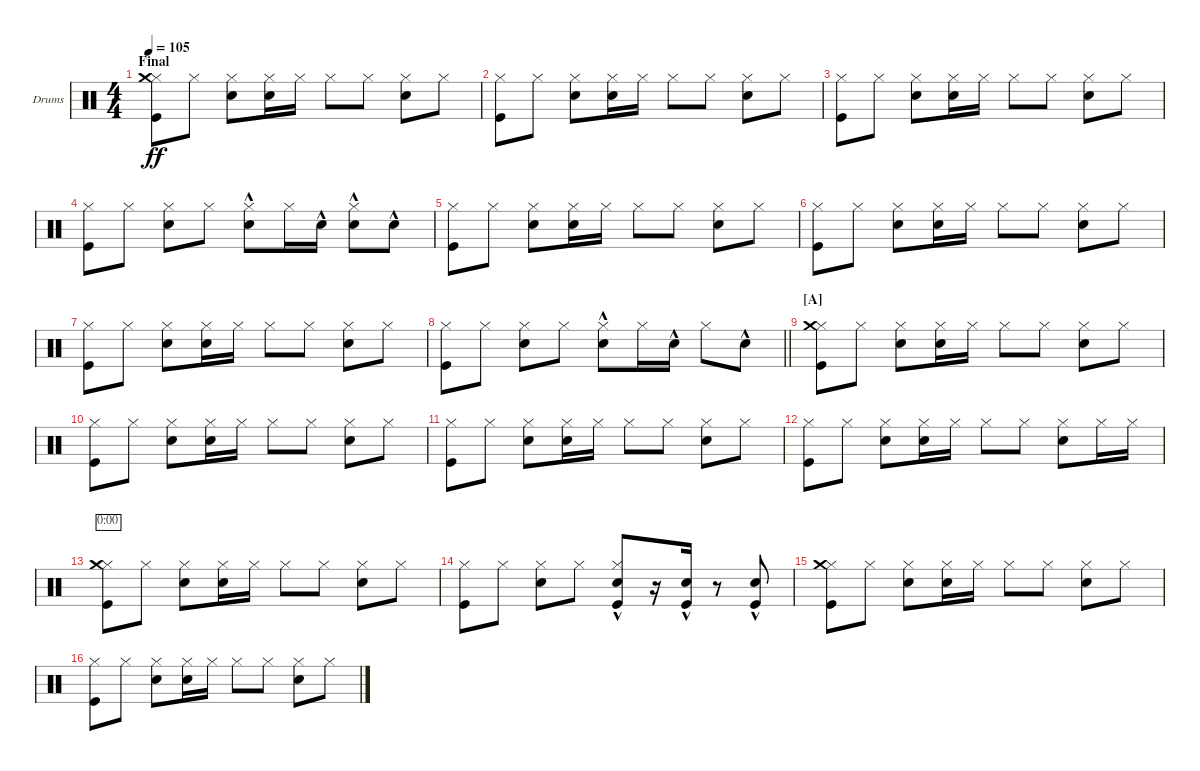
\bracketExtendMode groupsimilarinstruments
\firstSystemTrackNameOrientation horizontal
\otherSystemsTrackNameOrientation horizontal
\track ("Drumkit" "Drums") {instrument percussion}
\staff {score}
\articulation defaults
\ts (4 4)
\section ("" "Final")
\tempo 105
\clef neutral
\ks c
("Kick (hit)" "Hi-Hat (closed)" "Crash medium (hit)").8{dy ff} "Hi-Hat (closed)".8 ("Snare (hit) 2" "Hi-Hat (closed)").8 ("Hi-Hat (closed)" "Snare (hit) 2").16 "Hi-Hat (closed)".16 "Hi-Hat (closed)".8 "Hi-Hat (closed)".8 ("Snare (hit) 2" "Hi-Hat (closed)").8 "Hi-Hat (closed)".8 |
("Kick (hit)" "Hi-Hat (closed)").8 "Hi-Hat (closed)".8 ("Snare (hit) 2" "Hi-Hat (closed)").8 ("Hi-Hat (closed)" "Snare (hit) 2").16 "Hi-Hat (closed)".16 "Hi-Hat (closed)".8 "Hi-Hat (closed)".8 ("Snare (hit) 2" "Hi-Hat (closed)").8 "Hi-Hat (closed)".8 |
("Kick (hit)" "Hi-Hat (closed)").8 "Hi-Hat (closed)".8 ("Snare (hit) 2" "Hi-Hat (closed)").8 ("Hi-Hat (closed)" "Snare (hit) 2").16 "Hi-Hat (closed)".16 "Hi-Hat (closed)".8 "Hi-Hat (closed)".8 ("Snare (hit) 2" "Hi-Hat (closed)").8 "Hi-Hat (closed)".8 |
("Hi-Hat (closed)" "Kick (hit)").8 "Hi-Hat (closed)".8 ("Snare (hit) 2" "Hi-Hat (closed)").8 "Hi-Hat (closed)".8 ("Hi-Hat (closed)" "Snare (hit) 2"{hac}).8 "Hi-Hat (closed)".16 "Snare (hit) 2"{hac}.16 ("Hi-Hat (closed)" "Snare (hit) 2"{hac}).8 "Snare (hit) 2"{hac}.8 |
("Kick (hit)" "Hi-Hat (closed)").8 "Hi-Hat (closed)".8 ("Snare (hit) 2" "Hi-Hat (closed)").8 ("Hi-Hat (closed)" "Snare (hit) 2").16 "Hi-Hat (closed)".16 "Hi-Hat (closed)".8 "Hi-Hat (closed)".8 ("Snare (hit) 2" "Hi-Hat (closed)").8 "Hi-Hat (closed)".8 |
("Kick (hit)" "Hi-Hat (closed)").8 "Hi-Hat (closed)".8 ("Snare (hit) 2" "Hi-Hat (closed)").8 ("Hi-Hat (closed)" "Snare (hit) 2").16 "Hi-Hat (closed)".16 "Hi-Hat (closed)".8 "Hi-Hat (closed)".8 ("Snare (hit) 2" "Hi-Hat (closed)").8 "Hi-Hat (closed)".8 |
("Kick (hit)" "Hi-Hat (closed)").8 "Hi-Hat (closed)".8 ("Snare (hit) 2" "Hi-Hat (closed)").8 ("Hi-Hat (closed)" "Snare (hit) 2").16 "Hi-Hat (closed)".16 "Hi-Hat (closed)".8 "Hi-Hat (closed)".8 ("Snare (hit) 2" "Hi-Hat (closed)").8 "Hi-Hat (closed)".8 |
\barLineRight lightlight
("Hi-Hat (closed)" "Kick (hit)").8 "Hi-Hat (closed)".8 ("Snare (hit) 2" "Hi-Hat (closed)").8 "Hi-Hat (closed)".8 ("Hi-Hat (closed)" "Snare (hit) 2"{hac}).8 "Hi-Hat (closed)".16 "Snare (hit) 2"{hac}.16 "Hi-Hat (closed)".8 "Snare (hit) 2"{hac}.8 |
\section ("A" "")
("Kick (hit)" "Hi-Hat (closed)" "Crash medium (hit)").8 "Hi-Hat (closed)".8 ("Snare (hit) 2" "Hi-Hat (closed)").8 ("Hi-Hat (closed)" "Snare (hit) 2").16 "Hi-Hat (closed)".16 "Hi-Hat (closed)".8 "Hi-Hat (closed)".8 ("Snare (hit) 2" "Hi-Hat (closed)").8 "Hi-Hat (closed)".8 |
("Kick (hit)" "Hi-Hat (closed)").8 "Hi-Hat (closed)".8 ("Snare (hit) 2" "Hi-Hat (closed)").8 ("Hi-Hat (closed)" "Snare (hit) 2").16 "Hi-Hat (closed)".16 "Hi-Hat (closed)".8 "Hi-Hat (closed)".8 ("Snare (hit) 2" "Hi-Hat (closed)").8 "Hi-Hat (closed)".8 |
("Kick (hit)" "Hi-Hat (closed)").8 "Hi-Hat (closed)".8 ("Snare (hit) 2" "Hi-Hat (closed)").8 ("Hi-Hat (closed)" "Snare (hit) 2").16 "Hi-Hat (closed)".16 "Hi-Hat (closed)".8 "Hi-Hat (closed)".8 ("Snare (hit) 2" "Hi-Hat (closed)").8 "Hi-Hat (closed)".8 |
("Kick (hit)" "Hi-Hat (closed)").8 "Hi-Hat (closed)".8 ("Snare (hit) 2" "Hi-Hat (closed)").8 ("Hi-Hat (closed)" "Snare (hit) 2").16 "Hi-Hat (closed)".16 "Hi-Hat (closed)".8 "Hi-Hat (closed)".8 ("Snare (hit) 2" "Hi-Hat (closed)").8 "Hi-Hat (closed)".16 "Hi-Hat (closed)".16 |
\section ("" "")
("Kick (hit)" "Hi-Hat (closed)" "Crash medium (hit)").8{timer} "Hi-Hat (closed)".8 ("Snare (hit) 2" "Hi-Hat (closed)").8 ("Hi-Hat (closed)" "Snare (hit) 2").16 "Hi-Hat (closed)".16 "Hi-Hat (closed)".8 "Hi-Hat (closed)".8 ("Snare (hit) 2" "Hi-Hat (closed)").8 "Hi-Hat (closed)".8 |
("Hi-Hat (closed)" "Kick (hit)").8 "Hi-Hat (closed)".8 ("Snare (hit) 2" "Hi-Hat (closed)").8 "Hi-Hat (closed)".8 ("Hi-Hat (closed)" "Snare (hit) 2"{hac} "Kick (hit)").8 r.16 ("Snare (hit) 2"{hac} "Kick (hit)").16 r.8 ("Snare (hit) 2"{hac} "Kick (hit)").8 |
("Kick (hit)" "Hi-Hat (closed)" "Crash medium (hit)").8 "Hi-Hat (closed)".8 ("Snare (hit) 2" "Hi-Hat (closed)").8 ("Hi-Hat (closed)" "Snare (hit) 2").16 "Hi-Hat (closed)".16 "Hi-Hat (closed)".8 "Hi-Hat (closed)".8 ("Snare (hit) 2" "Hi-Hat (closed)").8 "Hi-Hat (closed)".8 |
("Kick (hit)" "Hi-Hat (closed)").8 "Hi-Hat (closed)".8 ("Snare (hit) 2" "Hi-Hat (closed)").8 ("Hi-Hat (closed)" "Snare (hit) 2").16 "Hi-Hat (closed)".16 "Hi-Hat (closed)".8 "Hi-Hat (closed)".8 ("Snare (hit) 2" "Hi-Hat (closed)").8 "Hi-Hat (closed)".8
